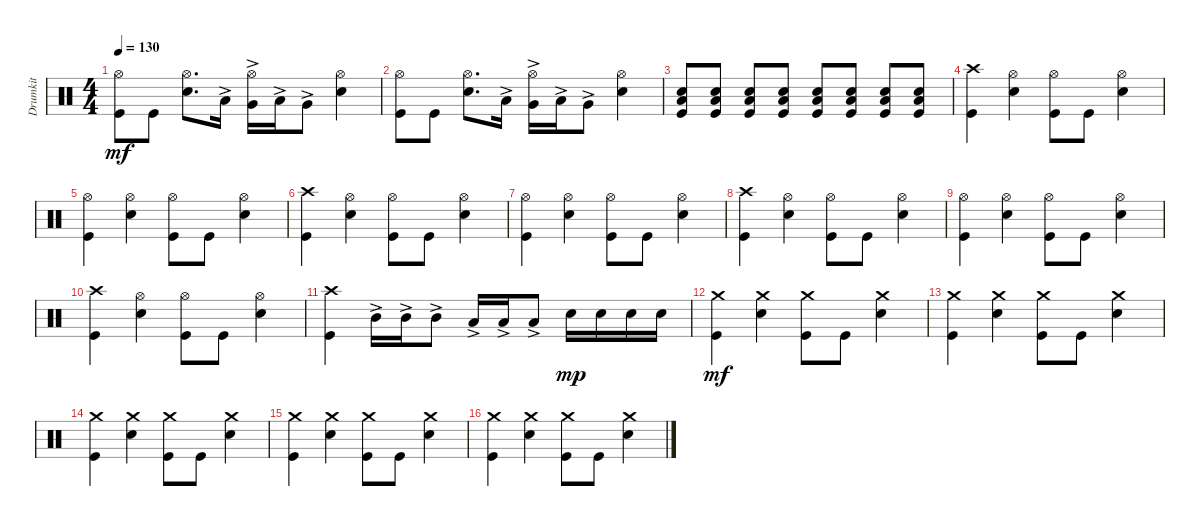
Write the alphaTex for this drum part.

\track ("Drumkit" "Drumkit") {instrument percussion}
\staff {score}
\articulation defaults
\ts (4 4)
\tempo 130
\clef neutral
\ks c
("Kick (hit)" "Hi-Hat (open)").8{dy mf} "Kick (hit)".8 ("Snare (hit) 2" "Hi-Hat (open)").8{d} "Low Tom (hit)"{ac}.16 ("Hi-Hat (open)" "Very Low Tom (hit)"{ac}).16 "Low Tom (hit)"{ac}.16 "Very Low Tom (hit)"{ac}.8 ("Snare (hit) 2" "Hi-Hat (open)").4 |
("Kick (hit)" "Hi-Hat (open)").8 "Kick (hit)".8 ("Snare (hit) 2" "Hi-Hat (open)").8{d} "Low Tom (hit)"{ac}.16 ("Hi-Hat (open)" "Very Low Tom (hit)"{ac}).16 "Low Tom (hit)"{ac}.16 "Very Low Tom (hit)"{ac}.8 ("Snare (hit) 2" "Hi-Hat (open)").4 |
("Low Tom (hit)" "Kick (hit)" "Snare (hit) 2").8{volume 12} ("Low Tom (hit)" "Kick (hit)" "Snare (hit) 2").8 ("Low Tom (hit)" "Kick (hit)" "Snare (hit) 2").8 ("Low Tom (hit)" "Kick (hit)" "Snare (hit) 2").8 ("Low Tom (hit)" "Kick (hit)" "Snare (hit) 2").8 ("Low Tom (hit)" "Kick (hit)" "Snare (hit) 2").8 ("Low Tom (hit)" "Kick (hit)" "Snare (hit) 2").8 ("Snare (hit) 2" "Low Tom (hit)" "Kick (hit)").8 |
("Kick (hit)" "Crash high (hit)").4{volume 16} ("Snare (hit) 2" "Hi-Hat (open)").4 ("Kick (hit)" "Hi-Hat (open)").8 "Kick (hit)".8 ("Snare (hit) 2" "Hi-Hat (open)").4 |
("Hi-Hat (open)" "Kick (hit)").4 ("Hi-Hat (open)" "Snare (hit) 2").4 ("Hi-Hat (open)" "Kick (hit)").8 "Kick (hit)".8 ("Hi-Hat (open)" "Snare (hit) 2").4 |
("Kick (hit)" "Crash high (hit)").4 ("Snare (hit) 2" "Hi-Hat (open)").4 ("Kick (hit)" "Hi-Hat (open)").8 "Kick (hit)".8 ("Snare (hit) 2" "Hi-Hat (open)").4 |
("Hi-Hat (open)" "Kick (hit)").4 ("Hi-Hat (open)" "Snare (hit) 2").4 ("Hi-Hat (open)" "Kick (hit)").8 "Kick (hit)".8 ("Hi-Hat (open)" "Snare (hit) 2").4 |
("Kick (hit)" "Crash high (hit)").4 ("Snare (hit) 2" "Hi-Hat (open)").4 ("Kick (hit)" "Hi-Hat (open)").8 "Kick (hit)".8 ("Snare (hit) 2" "Hi-Hat (open)").4 |
("Hi-Hat (open)" "Kick (hit)").4 ("Hi-Hat (open)" "Snare (hit) 2").4 ("Hi-Hat (open)" "Kick (hit)").8 "Kick (hit)".8 ("Hi-Hat (open)" "Snare (hit) 2").4 |
("Kick (hit)" "Crash high (hit)").4 ("Snare (hit) 2" "Hi-Hat (open)").4 ("Kick (hit)" "Hi-Hat (open)").8 "Kick (hit)".8 ("Snare (hit) 2" "Hi-Hat (open)").4 |
("Kick (hit)" "Crash high (hit)").4 "Mid Tom (hit)"{ac}.16 "Mid Tom (hit)"{ac}.16 "Mid Tom (hit)"{ac}.8 "Low Tom (hit)"{ac}.16 "Low Tom (hit)"{ac}.16 "Low Tom (hit)"{ac}.8 "Snare (hit) 2".16{dy mp} "Snare (hit) 2".16 "Snare (hit) 2".16 "Snare (hit) 2".16 |
("Kick (hit)" "Crash medium (hit)").4{dy mf} ("Snare (hit) 2" "Crash medium (hit)").4 ("Kick (hit)" "Crash medium (hit)").8 "Kick (hit)".8 ("Snare (hit) 2" "Crash medium (hit)").4 |
("Kick (hit)" "Crash medium (hit)").4 ("Snare (hit) 2" "Crash medium (hit)").4 ("Kick (hit)" "Crash medium (hit)").8 "Kick (hit)".8 ("Snare (hit) 2" "Crash medium (hit)").4 |
("Kick (hit)" "Crash medium (hit)").4 ("Snare (hit) 2" "Crash medium (hit)").4 ("Kick (hit)" "Crash medium (hit)").8 "Kick (hit)".8 ("Snare (hit) 2" "Crash medium (hit)").4 |
("Kick (hit)" "Crash medium (hit)").4 ("Snare (hit) 2" "Crash medium (hit)").4 ("Kick (hit)" "Crash medium (hit)").8 "Kick (hit)".8 ("Snare (hit) 2" "Crash medium (hit)").4 |
("Kick (hit)" "Crash medium (hit)").4 ("Snare (hit) 2" "Crash medium (hit)").4 ("Kick (hit)" "Crash medium (hit)").8 "Kick (hit)".8 ("Snare (hit) 2" "Crash medium (hit)").4
